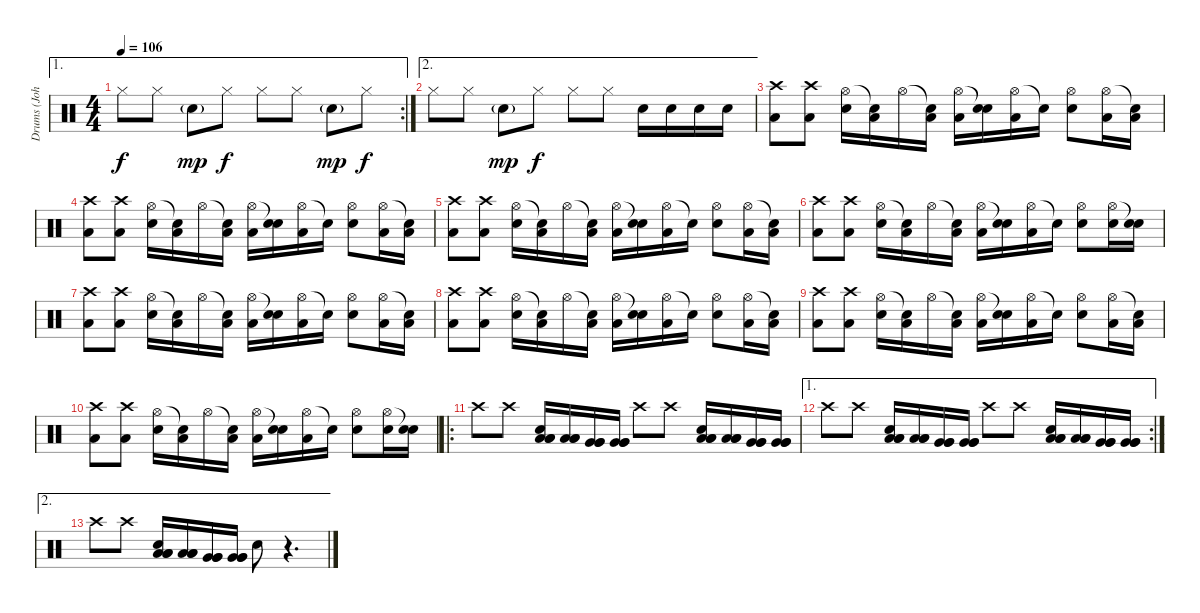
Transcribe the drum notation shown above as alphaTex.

\track ("Drums (John)" "Drums (Joh") {instrument percussion}
\staff {score}
\articulation defaults
\ae 1
\rc 2
\ts (4 4)
\tempo 106
\clef neutral
\ks c "Hi-Hat (closed)".8{dy f} "Hi-Hat (closed)".8 "Electric Snare (hit)"{g}.8{dy mp} "Hi-Hat (closed)".8{dy f} "Hi-Hat (closed)".8 "Hi-Hat (closed)".8 "Electric Snare (hit)"{g}.8{dy mp} "Hi-Hat (closed)".8{dy f}
|
\ae 2 "Hi-Hat (closed)".8 "Hi-Hat (closed)".8 "Electric Snare (hit)"{g}.8{dy mp} "Hi-Hat (closed)".8{dy f} "Hi-Hat (closed)".8 "Hi-Hat (closed)".8 "Electric Snare (hit)".16 "Electric Snare (hit)".16 "Electric Snare (hit)".16 "Electric Snare (hit)".16
|
("Crash high (hit)" "Low Tom (hit)").8 ("Crash high (hit)" "Low Tom (hit)").8 ("Hi-Hat (open)" "Electric Snare (hit)").16 ("Snare (hit)"{t} "Low Tom (hit)").16 "Hi-Hat (open)".16 ("Snare (hit)"{t} "Low Tom (hit)").16 ("Hi-Hat (open)" "Low Tom (hit)").16 ("Snare (hit)"{t} "Electric Snare (hit)").16 ("Hi-Hat (open)" "Low Tom (hit)").16 "Snare (hit)"{t}.16 ("Hi-Hat (open)" "Electric Snare (hit)").8 ("Hi-Hat (open)" "Low Tom (hit)").16 ("Snare (hit)"{t} "Low Tom (hit)").16 |
("Crash high (hit)" "Low Tom (hit)").8 ("Crash high (hit)" "Low Tom (hit)").8 ("Hi-Hat (open)" "Electric Snare (hit)").16 ("Snare (hit)"{t} "Low Tom (hit)").16 "Hi-Hat (open)".16 ("Snare (hit)"{t} "Low Tom (hit)").16 ("Hi-Hat (open)" "Low Tom (hit)").16 ("Snare (hit)"{t} "Electric Snare (hit)").16 ("Hi-Hat (open)" "Low Tom (hit)").16 "Snare (hit)"{t}.16 ("Hi-Hat (open)" "Electric Snare (hit)").8 ("Hi-Hat (open)" "Low Tom (hit)").16 ("Snare (hit)"{t} "Low Tom (hit)").16 |
("Crash high (hit)" "Low Tom (hit)").8 ("Crash high (hit)" "Low Tom (hit)").8 ("Hi-Hat (open)" "Electric Snare (hit)").16 ("Snare (hit)"{t} "Low Tom (hit)").16 "Hi-Hat (open)".16 ("Snare (hit)"{t} "Low Tom (hit)").16 ("Hi-Hat (open)" "Low Tom (hit)").16 ("Snare (hit)"{t} "Electric Snare (hit)").16 ("Hi-Hat (open)" "Low Tom (hit)").16 "Snare (hit)"{t}.16 ("Hi-Hat (open)" "Electric Snare (hit)").8 ("Hi-Hat (open)" "Low Tom (hit)").16 ("Snare (hit)"{t} "Low Tom (hit)").16 |
("Crash high (hit)" "Low Tom (hit)").8 ("Crash high (hit)" "Low Tom (hit)").8 ("Hi-Hat (open)" "Electric Snare (hit)").16 ("Snare (hit)"{t} "Low Tom (hit)").16 "Hi-Hat (open)".16 ("Snare (hit)"{t} "Low Tom (hit)").16 ("Hi-Hat (open)" "Low Tom (hit)").16 ("Snare (hit)"{t} "Electric Snare (hit)").16 ("Hi-Hat (open)" "Low Tom (hit)").16 "Snare (hit)"{t}.16 ("Hi-Hat (open)" "Electric Snare (hit)").8 ("Hi-Hat (open)" "Electric Snare (hit)").16 ("Snare (hit)"{t} "Electric Snare (hit)").16 |
("Crash high (hit)" "Low Tom (hit)").8 ("Crash high (hit)" "Low Tom (hit)").8 ("Hi-Hat (open)" "Electric Snare (hit)").16 ("Snare (hit)"{t} "Low Tom (hit)").16 "Hi-Hat (open)".16 ("Snare (hit)"{t} "Low Tom (hit)").16 ("Hi-Hat (open)" "Low Tom (hit)").16 ("Snare (hit)"{t} "Electric Snare (hit)").16 ("Hi-Hat (open)" "Low Tom (hit)").16 "Snare (hit)"{t}.16 ("Hi-Hat (open)" "Electric Snare (hit)").8 ("Hi-Hat (open)" "Low Tom (hit)").16 ("Snare (hit)"{t} "Low Tom (hit)").16 |
("Crash high (hit)" "Low Tom (hit)").8 ("Crash high (hit)" "Low Tom (hit)").8 ("Hi-Hat (open)" "Electric Snare (hit)").16 ("Snare (hit)"{t} "Low Tom (hit)").16 "Hi-Hat (open)".16 ("Snare (hit)"{t} "Low Tom (hit)").16 ("Hi-Hat (open)" "Low Tom (hit)").16 ("Snare (hit)"{t} "Electric Snare (hit)").16 ("Hi-Hat (open)" "Low Tom (hit)").16 "Snare (hit)"{t}.16 ("Hi-Hat (open)" "Electric Snare (hit)").8 ("Hi-Hat (open)" "Low Tom (hit)").16 ("Snare (hit)"{t} "Low Tom (hit)").16 |
("Crash high (hit)" "Low Tom (hit)").8 ("Crash high (hit)" "Low Tom (hit)").8 ("Hi-Hat (open)" "Electric Snare (hit)").16 ("Snare (hit)"{t} "Low Tom (hit)").16 "Hi-Hat (open)".16 ("Snare (hit)"{t} "Low Tom (hit)").16 ("Hi-Hat (open)" "Low Tom (hit)").16 ("Snare (hit)"{t} "Electric Snare (hit)").16 ("Hi-Hat (open)" "Low Tom (hit)").16 "Snare (hit)"{t}.16 ("Hi-Hat (open)" "Electric Snare (hit)").8 ("Hi-Hat (open)" "Low Tom (hit)").16 ("Snare (hit)"{t} "Low Tom (hit)").16 |
("Crash high (hit)" "Low Tom (hit)").8 ("Crash high (hit)" "Low Tom (hit)").8 ("Hi-Hat (open)" "Electric Snare (hit)").16 ("Snare (hit)"{t} "Low Tom (hit)").16 "Hi-Hat (open)".16 ("Snare (hit)"{t} "Low Tom (hit)").16 ("Hi-Hat (open)" "Low Tom (hit)").16 ("Snare (hit)"{t} "Electric Snare (hit)").16 ("Hi-Hat (open)" "Low Tom (hit)").16 "Snare (hit)"{t}.16 ("Hi-Hat (open)" "Electric Snare (hit)").8 ("Hi-Hat (open)" "Electric Snare (hit)").16 ("Snare (hit)"{t} "Electric Snare (hit)").16 |
\ro "Crash high (hit)".8 "Crash high (hit)".8
("Low Tom (hit)" "Low Tom (hit)" "Low Tom (hit)" "Electric Snare (hit)").16 ("Low Tom (hit)" "Low Tom (hit)" "Low Tom (hit)").16 ("Very Low Tom (hit)" "Very Low Tom (hit)" "Very Low Tom (hit)").16 ("Very Low Tom (hit)" "Very Low Tom (hit)" "Very Low Tom (hit)").16 "Crash high (hit)".8 "Crash high (hit)".8 ("Low Tom (hit)" "Low Tom (hit)" "Low Tom (hit)" "Electric Snare (hit)").16 ("Low Tom (hit)" "Low Tom (hit)" "Low Tom (hit)").16 ("Very Low Tom (hit)" "Very Low Tom (hit)" "Very Low Tom (hit)").16 ("Very Low Tom (hit)" "Very Low Tom (hit)" "Very Low Tom (hit)").16 |
\ae 1
\rc 2 "Crash high (hit)".8 "Crash high (hit)".8
("Low Tom (hit)" "Low Tom (hit)" "Low Tom (hit)" "Electric Snare (hit)").16 ("Low Tom (hit)" "Low Tom (hit)" "Low Tom (hit)").16 ("Very Low Tom (hit)" "Very Low Tom (hit)" "Very Low Tom (hit)").16 ("Very Low Tom (hit)" "Very Low Tom (hit)" "Very Low Tom (hit)").16 "Crash high (hit)".8 "Crash high (hit)".8 ("Low Tom (hit)" "Low Tom (hit)" "Low Tom (hit)" "Electric Snare (hit)").16 ("Low Tom (hit)" "Low Tom (hit)" "Low Tom (hit)").16 ("Very Low Tom (hit)" "Very Low Tom (hit)" "Very Low Tom (hit)").16 ("Very Low Tom (hit)" "Very Low Tom (hit)" "Very Low Tom (hit)").16 |
\ae 2 "Crash high (hit)".8 "Crash high (hit)".8
("Low Tom (hit)" "Low Tom (hit)" "Low Tom (hit)" "Electric Snare (hit)").16 ("Low Tom (hit)" "Low Tom (hit)" "Low Tom (hit)").16 ("Very Low Tom (hit)" "Very Low Tom (hit)" "Very Low Tom (hit)").16 ("Very Low Tom (hit)" "Very Low Tom (hit)" "Very Low Tom (hit)").16 "Electric Snare (hit)".8 r.4{d}
